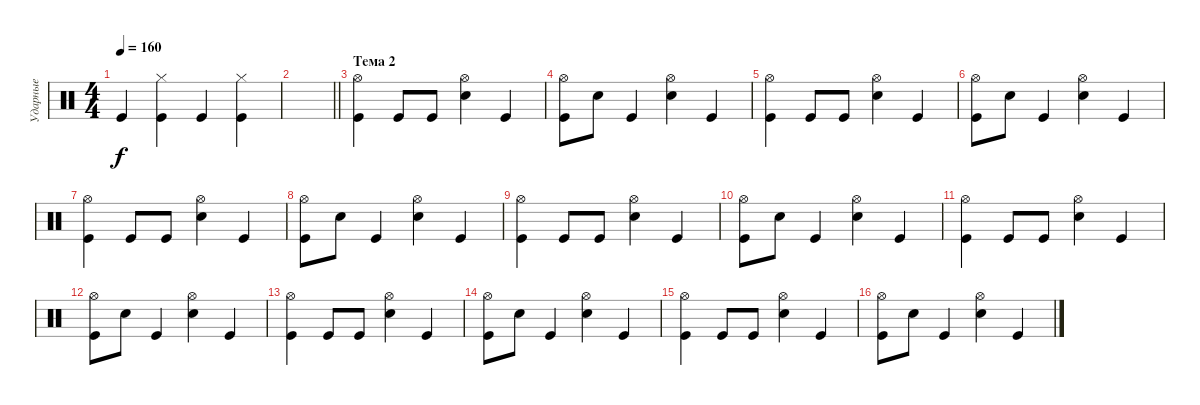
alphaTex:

\track ("Ударные" "Ударные") {instrument percussion}
\staff {score}
\articulation defaults
\ts (4 4)
\tempo 160
\clef neutral
\ks c "Kick (hit)".4{dy f}
("Kick (hit)" "Hi-Hat (closed)").4 "Kick (hit)".4 ("Kick (hit)" "Hi-Hat (closed)").4 |
\barLineRight lightlight
|
\section ("" "Тема 2")
("Kick (hit)" "Hi-Hat (open)").4 "Kick (hit)".8 "Kick (hit)".8 ("Electric Snare (hit)" "Hi-Hat (open)").4 "Kick (hit)".4 |
("Kick (hit)" "Hi-Hat (open)").8 "Electric Snare (hit)".8 "Kick (hit)".4 ("Electric Snare (hit)" "Hi-Hat (open)").4 "Kick (hit)".4 |
("Kick (hit)" "Hi-Hat (open)").4 "Kick (hit)".8 "Kick (hit)".8 ("Electric Snare (hit)" "Hi-Hat (open)").4 "Kick (hit)".4 |
("Kick (hit)" "Hi-Hat (open)").8 "Electric Snare (hit)".8 "Kick (hit)".4 ("Electric Snare (hit)" "Hi-Hat (open)").4 "Kick (hit)".4 |
("Kick (hit)" "Hi-Hat (open)").4 "Kick (hit)".8 "Kick (hit)".8 ("Electric Snare (hit)" "Hi-Hat (open)").4 "Kick (hit)".4 |
("Kick (hit)" "Hi-Hat (open)").8 "Electric Snare (hit)".8 "Kick (hit)".4 ("Electric Snare (hit)" "Hi-Hat (open)").4 "Kick (hit)".4 |
("Kick (hit)" "Hi-Hat (open)").4 "Kick (hit)".8 "Kick (hit)".8 ("Electric Snare (hit)" "Hi-Hat (open)").4 "Kick (hit)".4 |
("Kick (hit)" "Hi-Hat (open)").8 "Electric Snare (hit)".8 "Kick (hit)".4 ("Electric Snare (hit)" "Hi-Hat (open)").4 "Kick (hit)".4 |
("Kick (hit)" "Hi-Hat (open)").4 "Kick (hit)".8 "Kick (hit)".8 ("Electric Snare (hit)" "Hi-Hat (open)").4 "Kick (hit)".4 |
("Kick (hit)" "Hi-Hat (open)").8 "Electric Snare (hit)".8 "Kick (hit)".4 ("Electric Snare (hit)" "Hi-Hat (open)").4 "Kick (hit)".4 |
("Kick (hit)" "Hi-Hat (open)").4 "Kick (hit)".8 "Kick (hit)".8 ("Electric Snare (hit)" "Hi-Hat (open)").4 "Kick (hit)".4 |
("Kick (hit)" "Hi-Hat (open)").8 "Electric Snare (hit)".8 "Kick (hit)".4 ("Electric Snare (hit)" "Hi-Hat (open)").4 "Kick (hit)".4 |
("Kick (hit)" "Hi-Hat (open)").4 "Kick (hit)".8 "Kick (hit)".8 ("Electric Snare (hit)" "Hi-Hat (open)").4 "Kick (hit)".4 |
("Kick (hit)" "Hi-Hat (open)").8 "Electric Snare (hit)".8 "Kick (hit)".4 ("Electric Snare (hit)" "Hi-Hat (open)").4 "Kick (hit)".4
